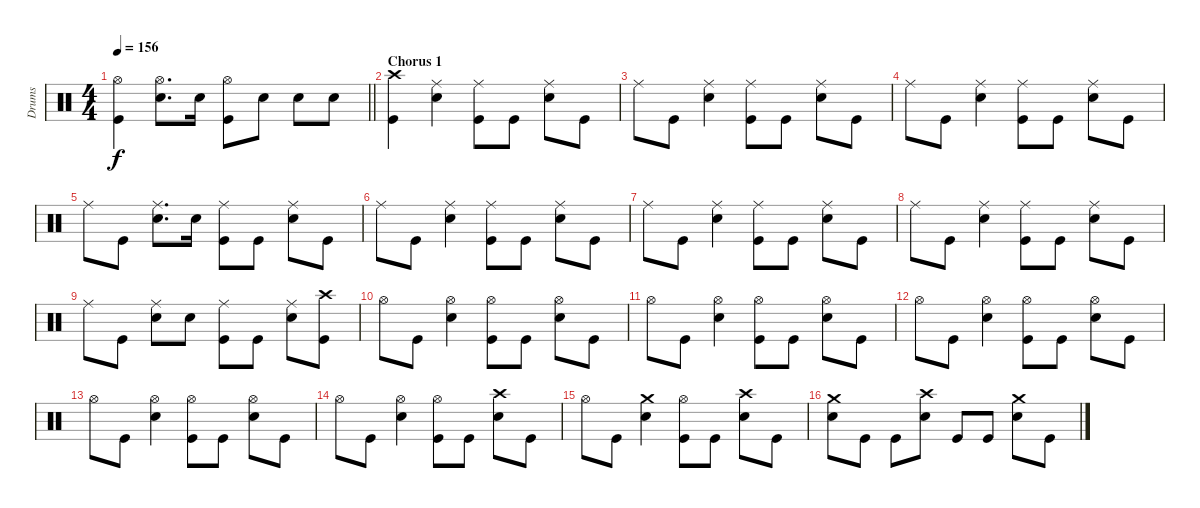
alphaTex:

\track ("Drums" "Drums") {instrument percussion}
\staff {score}
\articulation defaults
\ts (4 4)
\tempo 156
\clef neutral
\barLineRight lightlight
\ks c
("Hi-Hat (open)" "Kick (hit)").4{dy f} ("Hi-Hat (open)" "Snare (hit) 2").8{d} "Snare (hit) 2".16 ("Hi-Hat (open)" "Kick (hit)").8 "Snare (hit) 2".8 "Snare (hit) 2".8 "Snare (hit) 2".8 |
\section ("" "Chorus 1")
("Crash high (hit)" "Kick (hit)").4 ("Ride (middle)" "Snare (hit) 2").4 ("Ride (middle)" "Kick (hit)").8 "Kick (hit)".8 ("Ride (middle)" "Snare (hit) 2").8 "Kick (hit)".8 |
"Ride (middle)".8 "Kick (hit)".8 ("Ride (middle)" "Snare (hit) 2").4 ("Ride (middle)" "Kick (hit)").8 "Kick (hit)".8 ("Ride (middle)" "Snare (hit) 2").8 "Kick (hit)".8 |
"Ride (middle)".8 "Kick (hit)".8 ("Ride (middle)" "Snare (hit) 2").4 ("Ride (middle)" "Kick (hit)").8 "Kick (hit)".8 ("Ride (middle)" "Snare (hit) 2").8 "Kick (hit)".8 |
"Ride (middle)".8 "Kick (hit)".8 ("Ride (middle)" "Snare (hit) 2").8{d} "Snare (hit) 2".16 ("Ride (middle)" "Kick (hit)").8 "Kick (hit)".8 ("Ride (middle)" "Snare (hit) 2").8 "Kick (hit)".8 |
"Ride (middle)".8 "Kick (hit)".8 ("Ride (middle)" "Snare (hit) 2").4 ("Ride (middle)" "Kick (hit)").8 "Kick (hit)".8 ("Ride (middle)" "Snare (hit) 2").8 "Kick (hit)".8 |
"Ride (middle)".8 "Kick (hit)".8 ("Ride (middle)" "Snare (hit) 2").4 ("Ride (middle)" "Kick (hit)").8 "Kick (hit)".8 ("Ride (middle)" "Snare (hit) 2").8 "Kick (hit)".8 |
"Ride (middle)".8 "Kick (hit)".8 ("Ride (middle)" "Snare (hit) 2").4 ("Ride (middle)" "Kick (hit)").8 "Kick (hit)".8 ("Ride (middle)" "Snare (hit) 2").8 "Kick (hit)".8 |
"Ride (middle)".8 "Kick (hit)".8 ("Ride (middle)" "Snare (hit) 2").8 "Snare (hit) 2".8 ("Ride (middle)" "Kick (hit)").8 "Kick (hit)".8 ("Ride (middle)" "Snare (hit) 2").8 ("Crash high (hit)" "Kick (hit)").8 |
"Hi-Hat (open)".8 "Kick (hit)".8 ("Hi-Hat (open)" "Snare (hit) 2").4 ("Hi-Hat (open)" "Kick (hit)").8 "Kick (hit)".8 ("Hi-Hat (open)" "Snare (hit) 2").8 "Kick (hit)".8 |
"Hi-Hat (open)".8 "Kick (hit)".8 ("Hi-Hat (open)" "Snare (hit) 2").4 ("Hi-Hat (open)" "Kick (hit)").8 "Kick (hit)".8 ("Hi-Hat (open)" "Snare (hit) 2").8 "Kick (hit)".8 |
"Hi-Hat (open)".8 "Kick (hit)".8 ("Hi-Hat (open)" "Snare (hit) 2").4 ("Hi-Hat (open)" "Kick (hit)").8 "Kick (hit)".8 ("Hi-Hat (open)" "Snare (hit) 2").8 "Kick (hit)".8 |
"Hi-Hat (open)".8 "Kick (hit)".8 ("Hi-Hat (open)" "Snare (hit) 2").4 ("Hi-Hat (open)" "Kick (hit)").8 "Kick (hit)".8 ("Hi-Hat (open)" "Snare (hit) 2").8 "Kick (hit)".8 |
"Hi-Hat (open)".8 "Kick (hit)".8 ("Hi-Hat (open)" "Snare (hit) 2").4 ("Hi-Hat (open)" "Kick (hit)").8 "Kick (hit)".8 ("Crash high (hit)" "Snare (hit) 2").8 "Kick (hit)".8 |
"Hi-Hat (open)".8 "Kick (hit)".8 ("Crash medium (hit)" "Snare (hit) 2").4 ("Hi-Hat (open)" "Kick (hit)").8 "Kick (hit)".8 ("Crash high (hit)" "Snare (hit) 2").8 "Kick (hit)".8 |
("Crash medium (hit)" "Snare (hit) 2").8 "Kick (hit)".8 "Kick (hit)".8 ("Crash high (hit)" "Snare (hit) 2").8 "Kick (hit)".8 "Kick (hit)".8 ("Crash medium (hit)" "Snare (hit) 2").8 "Kick (hit)".8
